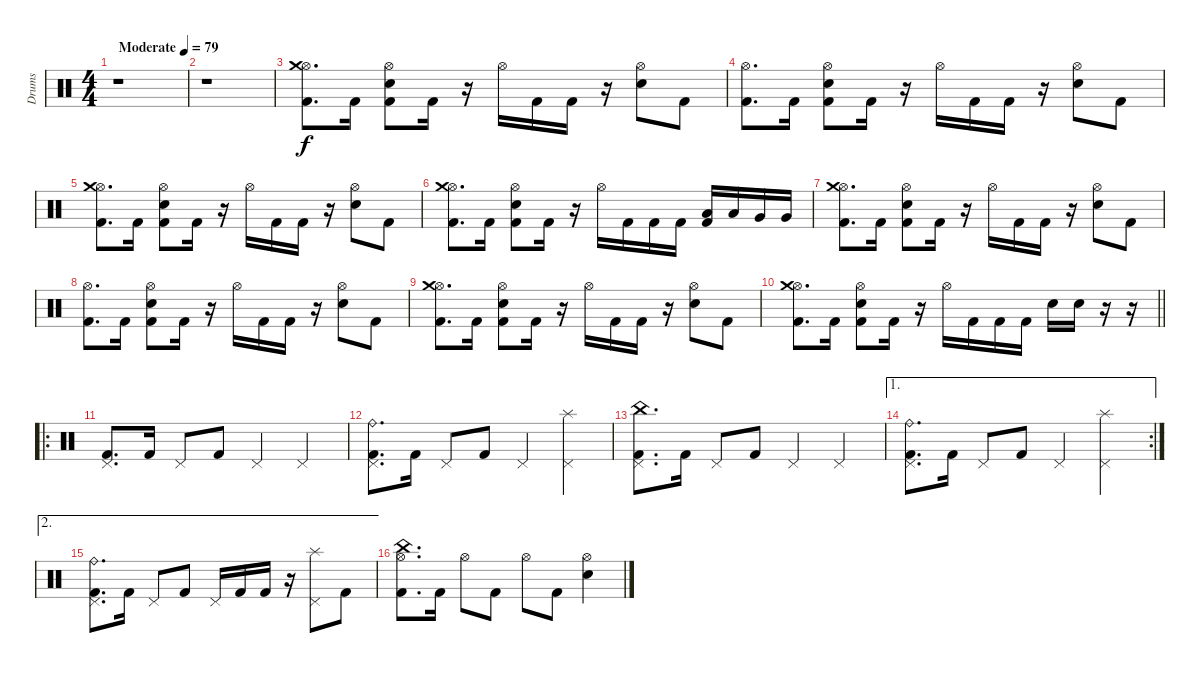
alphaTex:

\track ("Drums" "Drums") {instrument percussion}
\staff {score}
\articulation defaults
\ts (4 4)
\tempo (79 "Moderate")
\clef neutral
\ks c
r.1{dy f} |
r.1 |
("Hi-Hat (open)" "Crash medium (hit)" "Kick (hit) 2").8{d} "Kick (hit) 2".16 ("Hi-Hat (open)" "Electric Snare (hit)" "Kick (hit) 2").8 "Kick (hit) 2".16 r.16 "Hi-Hat (open)".16 "Kick (hit) 2".16 "Kick (hit) 2".16 r.16 ("Hi-Hat (open)" "Electric Snare (hit)").8 "Kick (hit) 2".8 |
("Hi-Hat (open)" "Kick (hit) 2").8{d} "Kick (hit) 2".16 ("Hi-Hat (open)" "Electric Snare (hit)" "Kick (hit) 2").8 "Kick (hit) 2".16 r.16 "Hi-Hat (open)".16 "Kick (hit) 2".16 "Kick (hit) 2".16 r.16 ("Hi-Hat (open)" "Electric Snare (hit)").8 "Kick (hit) 2".8 |
("Hi-Hat (open)" "Crash medium (hit)" "Kick (hit) 2").8{d} "Kick (hit) 2".16 ("Hi-Hat (open)" "Electric Snare (hit)" "Kick (hit) 2").8 "Kick (hit) 2".16 r.16 "Hi-Hat (open)".16 "Kick (hit) 2".16 "Kick (hit) 2".16 r.16 ("Hi-Hat (open)" "Electric Snare (hit)").8 "Kick (hit) 2".8 |
("Hi-Hat (open)" "Crash medium (hit)" "Kick (hit) 2").8{d} "Kick (hit) 2".16 ("Hi-Hat (open)" "Electric Snare (hit)" "Kick (hit) 2").8 "Kick (hit) 2".16 r.16 "Hi-Hat (open)".16 "Kick (hit) 2".16 "Kick (hit) 2".16 "Kick (hit) 2".16 ("Low Tom (hit)" "Kick (hit) 2").16 "Low Tom (hit)".16 "Very Low Tom (hit)".16 "Very Low Tom (hit)".16 |
("Hi-Hat (open)" "Crash medium (hit)" "Kick (hit) 2").8{d} "Kick (hit) 2".16 ("Hi-Hat (open)" "Electric Snare (hit)" "Kick (hit) 2").8 "Kick (hit) 2".16 r.16 "Hi-Hat (open)".16 "Kick (hit) 2".16 "Kick (hit) 2".16 r.16 ("Hi-Hat (open)" "Electric Snare (hit)").8 "Kick (hit) 2".8 |
("Hi-Hat (open)" "Kick (hit) 2").8{d} "Kick (hit) 2".16 ("Hi-Hat (open)" "Electric Snare (hit)" "Kick (hit) 2").8 "Kick (hit) 2".16 r.16 "Hi-Hat (open)".16 "Kick (hit) 2".16 "Kick (hit) 2".16 r.16 ("Hi-Hat (open)" "Electric Snare (hit)").8 "Kick (hit) 2".8 |
("Hi-Hat (open)" "Crash medium (hit)" "Kick (hit) 2").8{d} "Kick (hit) 2".16 ("Hi-Hat (open)" "Electric Snare (hit)" "Kick (hit) 2").8 "Kick (hit) 2".16 r.16 "Hi-Hat (open)".16 "Kick (hit) 2".16 "Kick (hit) 2".16 r.16 ("Hi-Hat (open)" "Electric Snare (hit)").8 "Kick (hit) 2".8 |
\barLineRight lightlight
("Hi-Hat (open)" "Crash medium (hit)" "Kick (hit) 2").8{d} "Kick (hit) 2".16 ("Hi-Hat (open)" "Electric Snare (hit)" "Kick (hit) 2").8 "Kick (hit) 2".16 r.16 "Hi-Hat (open)".16 "Kick (hit) 2".16 "Kick (hit) 2".16 "Kick (hit) 2".16 "Electric Snare (hit)".16 "Electric Snare (hit)".16 r.16 r.16 |
\ro
("Pedal Hi-Hat (hit)" "Kick (hit) 2").8{d} "Kick (hit) 2".16 "Pedal Hi-Hat (hit)".8 "Kick (hit) 2".8 "Pedal Hi-Hat (hit)".4 "Pedal Hi-Hat (hit)".4 |
("Pedal Hi-Hat (hit)" "Ride (bell)" "Kick (hit) 2").8{d} "Kick (hit) 2".16 "Pedal Hi-Hat (hit)".8 "Kick (hit) 2".8 "Pedal Hi-Hat (hit)".4 ("Pedal Hi-Hat (hit)" "Splash (hit)").4 |
("Pedal Hi-Hat (hit)" "China (hit)" "Kick (hit) 2").8{d} "Kick (hit) 2".16 "Pedal Hi-Hat (hit)".8 "Kick (hit) 2".8 "Pedal Hi-Hat (hit)".4 "Pedal Hi-Hat (hit)".4 |
\ae 1
\rc 2
("Pedal Hi-Hat (hit)" "Ride (bell)" "Kick (hit) 2").8{d} "Kick (hit) 2".16 "Pedal Hi-Hat (hit)".8 "Kick (hit) 2".8 "Pedal Hi-Hat (hit)".4 ("Pedal Hi-Hat (hit)" "Splash (hit)").4 |
\ae 2
("Pedal Hi-Hat (hit)" "Ride (bell)" "Kick (hit) 2").8{d} "Kick (hit) 2".16 "Pedal Hi-Hat (hit)".8 "Kick (hit) 2".8 "Pedal Hi-Hat (hit)".16 "Kick (hit) 2".16 "Kick (hit) 2".16 r.16 ("Pedal Hi-Hat (hit)" "Splash (hit)").8 "Kick (hit) 2".8 |
("Hi-Hat (open)" "China (hit)" "Kick (hit) 2").8{d} "Kick (hit) 2".16 "Hi-Hat (open)".8 "Kick (hit) 2".8 "Hi-Hat (open)".8 "Kick (hit) 2".8 ("Hi-Hat (open)" "Electric Snare (hit)").4
